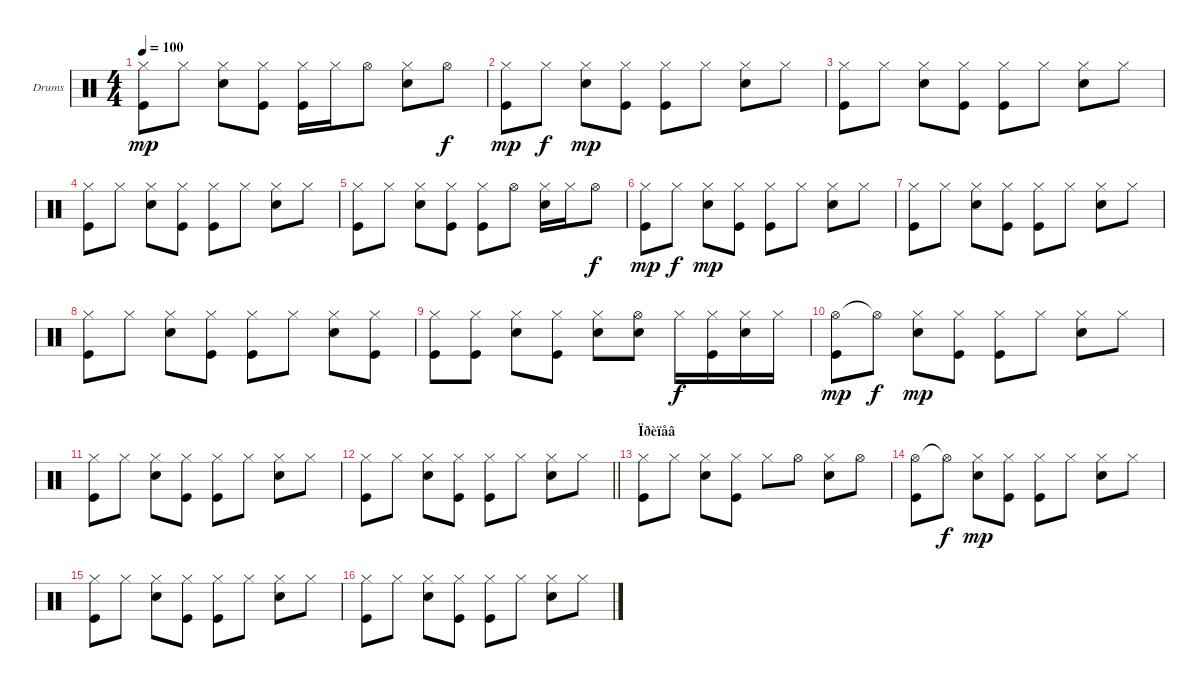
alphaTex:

\bracketExtendMode groupsimilarinstruments
\firstSystemTrackNameOrientation horizontal
\otherSystemsTrackNameOrientation horizontal
\track ("Drumkit" "Drums") {instrument percussion}
\staff {score}
\articulation defaults
\ts (4 4)
\tempo 100
\clef neutral
\scale
0.333333
\ks c
("Hi-Hat (closed)" "Kick (hit)").8{dy mp} "Hi-Hat (closed)".8 ("Hi-Hat (closed)" "Snare (hit) 2").8 ("Hi-Hat (closed)" "Kick (hit)").8 ("Hi-Hat (closed)" "Kick (hit)").16 "Hi-Hat (closed)".16 "Hi-Hat (open)".8 ("Hi-Hat (closed)" "Snare (hit) 2").8 "Hi-Hat (open)".8{dy f} |
\scale
0.333333 ("Hi-Hat (closed)" "Kick (hit)").8{dy mp} "Hi-Hat (closed)".8{dy f} ("Hi-Hat (closed)" "Snare (hit) 2").8{dy mp} ("Hi-Hat (closed)" "Kick (hit)").8 ("Hi-Hat (closed)" "Kick (hit)").8 "Hi-Hat (closed)".8 ("Hi-Hat (closed)" "Snare (hit) 2").8 "Hi-Hat (closed)".8 |
\scale
0.333333 ("Hi-Hat (closed)" "Kick (hit)").8 "Hi-Hat (closed)".8 ("Hi-Hat (closed)" "Snare (hit) 2").8 ("Hi-Hat (closed)" "Kick (hit)").8 ("Hi-Hat (closed)" "Kick (hit)").8 "Hi-Hat (closed)".8 ("Hi-Hat (closed)" "Snare (hit) 2").8 "Hi-Hat (closed)".8 |
\scale
0.333333 ("Hi-Hat (closed)" "Kick (hit)").8 "Hi-Hat (closed)".8 ("Hi-Hat (closed)" "Snare (hit) 2").8 ("Hi-Hat (closed)" "Kick (hit)").8 ("Hi-Hat (closed)" "Kick (hit)").8 "Hi-Hat (closed)".8 ("Hi-Hat (closed)" "Snare (hit) 2").8 "Hi-Hat (closed)".8 |
\scale
0.333333 ("Hi-Hat (closed)" "Kick (hit)").8 "Hi-Hat (closed)".8 ("Hi-Hat (closed)" "Snare (hit) 2").8 ("Hi-Hat (closed)" "Kick (hit)").8 ("Hi-Hat (closed)" "Kick (hit)").8 "Hi-Hat (open)".8 ("Hi-Hat (closed)" "Snare (hit) 2").16 "Hi-Hat (closed)".16 "Hi-Hat (open)".8{dy f} |
\scale
0.333333 ("Hi-Hat (closed)" "Kick (hit)").8{dy mp} "Hi-Hat (closed)".8{dy f} ("Hi-Hat (closed)" "Snare (hit) 2").8{dy mp} ("Hi-Hat (closed)" "Kick (hit)").8 ("Hi-Hat (closed)" "Kick (hit)").8 "Hi-Hat (closed)".8 ("Hi-Hat (closed)" "Snare (hit) 2").8 "Hi-Hat (closed)".8 |
\scale
0.333333 ("Hi-Hat (closed)" "Kick (hit)").8 "Hi-Hat (closed)".8 ("Hi-Hat (closed)" "Snare (hit) 2").8 ("Hi-Hat (closed)" "Kick (hit)").8 ("Hi-Hat (closed)" "Kick (hit)").8 "Hi-Hat (closed)".8 ("Hi-Hat (closed)" "Snare (hit) 2").8 "Hi-Hat (closed)".8 |
\scale
0.333333 ("Hi-Hat (closed)" "Kick (hit)").8 "Hi-Hat (closed)".8 ("Hi-Hat (closed)" "Snare (hit) 2").8 ("Hi-Hat (closed)" "Kick (hit)").8 ("Hi-Hat (closed)" "Kick (hit)").8 "Hi-Hat (closed)".8 ("Hi-Hat (closed)" "Snare (hit) 2").8 ("Hi-Hat (closed)" "Kick (hit)").8 |
\scale
0.333333 ("Hi-Hat (closed)" "Kick (hit)").8 ("Hi-Hat (closed)" "Kick (hit)").8 ("Hi-Hat (closed)" "Snare (hit) 2").8 ("Hi-Hat (closed)" "Kick (hit)").8 ("Hi-Hat (closed)" "Snare (hit) 2").8 ("Hi-Hat (open)" "Snare (hit) 2").8 "Hi-Hat (closed)".16{dy f} ("Hi-Hat (closed)" "Kick (hit)").16 ("Hi-Hat (closed)" "Snare (hit) 2").16 "Hi-Hat (closed)".16 |
\scale
0.333333 ("Hi-Hat (open)" "Kick (hit)").8{dy mp} "Hi-Hat (open)"{t}.8{dy f} ("Hi-Hat (closed)" "Snare (hit) 2").8{dy mp} ("Hi-Hat (closed)" "Kick (hit)").8 ("Hi-Hat (closed)" "Kick (hit)").8 "Hi-Hat (closed)".8 ("Hi-Hat (closed)" "Snare (hit) 2").8 "Hi-Hat (closed)".8 |
\scale
0.333333 ("Hi-Hat (closed)" "Kick (hit)").8 "Hi-Hat (closed)".8 ("Hi-Hat (closed)" "Snare (hit) 2").8 ("Hi-Hat (closed)" "Kick (hit)").8 ("Hi-Hat (closed)" "Kick (hit)").8 "Hi-Hat (closed)".8 ("Hi-Hat (closed)" "Snare (hit) 2").8 "Hi-Hat (closed)".8 |
\scale
0.333333
\barLineRight lightlight
("Hi-Hat (closed)" "Kick (hit)").8 "Hi-Hat (closed)".8 ("Hi-Hat (closed)" "Snare (hit) 2").8 ("Hi-Hat (closed)" "Kick (hit)").8 ("Hi-Hat (closed)" "Kick (hit)").8 "Hi-Hat (closed)".8 ("Hi-Hat (closed)" "Snare (hit) 2").8 "Hi-Hat (closed)".8 |
\section ("" "Ïðèïåâ")
\scale
0.333333 ("Hi-Hat (closed)" "Kick (hit)").8 "Hi-Hat (closed)".8 ("Hi-Hat (closed)" "Snare (hit) 2").8 ("Hi-Hat (closed)" "Kick (hit)").8 "Hi-Hat (closed)".8 "Hi-Hat (open)".8 ("Hi-Hat (closed)" "Snare (hit) 2").8 "Hi-Hat (open)".8 |
\scale
0.333333 ("Hi-Hat (open)" "Kick (hit)").8 "Hi-Hat (open)"{t}.8{dy f} ("Hi-Hat (closed)" "Snare (hit) 2").8{dy mp} ("Hi-Hat (closed)" "Kick (hit)").8 ("Hi-Hat (closed)" "Kick (hit)").8 "Hi-Hat (closed)".8 ("Hi-Hat (closed)" "Snare (hit) 2").8 "Hi-Hat (closed)".8 |
\scale
0.333333 ("Hi-Hat (closed)" "Kick (hit)").8 "Hi-Hat (closed)".8 ("Hi-Hat (closed)" "Snare (hit) 2").8 ("Hi-Hat (closed)" "Kick (hit)").8 ("Hi-Hat (closed)" "Kick (hit)").8 "Hi-Hat (closed)".8 ("Hi-Hat (closed)" "Snare (hit) 2").8 "Hi-Hat (closed)".8 |
\scale
0.333333 ("Hi-Hat (closed)" "Kick (hit)").8 "Hi-Hat (closed)".8 ("Hi-Hat (closed)" "Snare (hit) 2").8 ("Hi-Hat (closed)" "Kick (hit)").8 ("Hi-Hat (closed)" "Kick (hit)").8 "Hi-Hat (closed)".8 ("Hi-Hat (closed)" "Snare (hit) 2").8 "Hi-Hat (closed)".8
